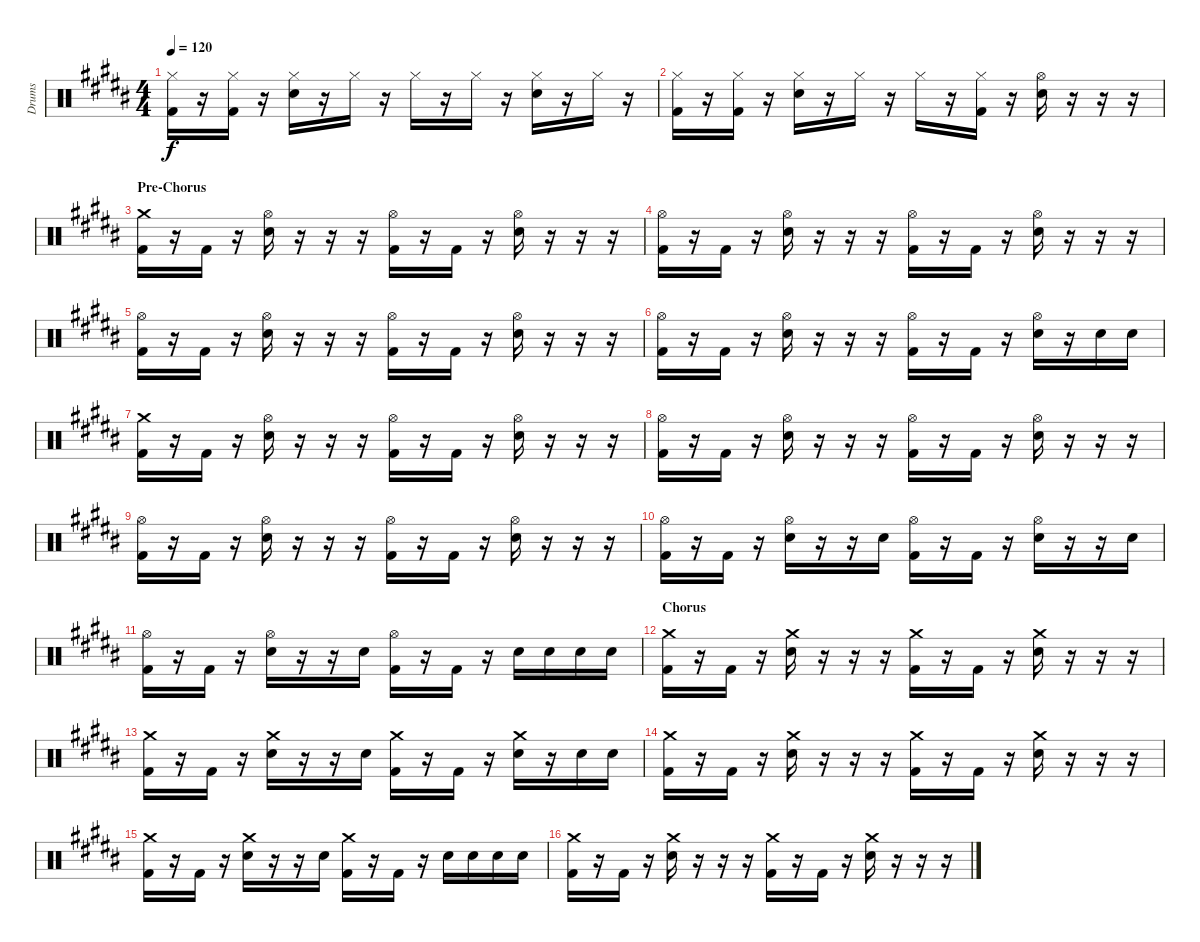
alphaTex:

\track ("Drums" "Drums") {instrument percussion}
\staff {score}
\articulation defaults
\ts (4 4)
\tempo 120
\clef neutral
\ks b
("Hi-Hat (closed)" "Kick (hit) 2").16{dy f} r.16 ("Hi-Hat (closed)" "Kick (hit) 2").16 r.16 ("Hi-Hat (closed)" "Snare (hit) 2").16 r.16 "Hi-Hat (closed)".16 r.16 "Hi-Hat (closed)".16 r.16 "Hi-Hat (closed)".16 r.16 ("Hi-Hat (closed)" "Snare (hit) 2").16 r.16 "Hi-Hat (closed)".16 r.16 |
("Hi-Hat (closed)" "Kick (hit) 2").16 r.16 ("Hi-Hat (closed)" "Kick (hit) 2").16 r.16 ("Hi-Hat (closed)" "Snare (hit) 2").16 r.16 "Hi-Hat (closed)".16 r.16 "Hi-Hat (closed)".16 r.16 ("Hi-Hat (closed)" "Kick (hit) 2").16 r.16 ("Hi-Hat (open)" "Snare (hit) 2").16 r.16 r.16 r.16 |
\section ("" "Pre-Chorus")
("Crash medium (hit)" "Kick (hit) 2").16 r.16 "Kick (hit) 2".16 r.16 ("Hi-Hat (open)" "Snare (hit) 2").16 r.16 r.16 r.16 ("Hi-Hat (open)" "Kick (hit) 2").16 r.16 "Kick (hit) 2".16 r.16 ("Hi-Hat (open)" "Snare (hit) 2").16 r.16 r.16 r.16 |
("Hi-Hat (open)" "Kick (hit) 2").16 r.16 "Kick (hit) 2".16 r.16 ("Hi-Hat (open)" "Snare (hit) 2").16 r.16 r.16 r.16 ("Hi-Hat (open)" "Kick (hit) 2").16 r.16 "Kick (hit) 2".16 r.16 ("Hi-Hat (open)" "Snare (hit) 2").16 r.16 r.16 r.16 |
("Hi-Hat (open)" "Kick (hit) 2").16 r.16 "Kick (hit) 2".16 r.16 ("Hi-Hat (open)" "Snare (hit) 2").16 r.16 r.16 r.16 ("Hi-Hat (open)" "Kick (hit) 2").16 r.16 "Kick (hit) 2".16 r.16 ("Hi-Hat (open)" "Snare (hit) 2").16 r.16 r.16 r.16 |
("Hi-Hat (open)" "Kick (hit) 2").16 r.16 "Kick (hit) 2".16 r.16 ("Hi-Hat (open)" "Snare (hit) 2").16 r.16 r.16 r.16 ("Hi-Hat (open)" "Kick (hit) 2").16 r.16 "Kick (hit) 2".16 r.16 ("Hi-Hat (open)" "Snare (hit) 2").16 r.16 "Snare (hit) 2".16 "Snare (hit) 2".16 |
("Crash medium (hit)" "Kick (hit) 2").16 r.16 "Kick (hit) 2".16 r.16 ("Hi-Hat (open)" "Snare (hit) 2").16 r.16 r.16 r.16 ("Hi-Hat (open)" "Kick (hit) 2").16 r.16 "Kick (hit) 2".16 r.16 ("Hi-Hat (open)" "Snare (hit) 2").16 r.16 r.16 r.16 |
("Hi-Hat (open)" "Kick (hit) 2").16 r.16 "Kick (hit) 2".16 r.16 ("Hi-Hat (open)" "Snare (hit) 2").16 r.16 r.16 r.16 ("Hi-Hat (open)" "Kick (hit) 2").16 r.16 "Kick (hit) 2".16 r.16 ("Hi-Hat (open)" "Snare (hit) 2").16 r.16 r.16 r.16 |
("Hi-Hat (open)" "Kick (hit) 2").16 r.16 "Kick (hit) 2".16 r.16 ("Hi-Hat (open)" "Snare (hit) 2").16 r.16 r.16 r.16 ("Hi-Hat (open)" "Kick (hit) 2").16 r.16 "Kick (hit) 2".16 r.16 ("Hi-Hat (open)" "Snare (hit) 2").16 r.16 r.16 r.16 |
("Hi-Hat (open)" "Kick (hit) 2").16 r.16 "Kick (hit) 2".16 r.16 ("Hi-Hat (open)" "Snare (hit) 2").16 r.16 r.16 "Snare (hit) 2".16 ("Hi-Hat (open)" "Kick (hit) 2").16 r.16 "Kick (hit) 2".16 r.16 ("Hi-Hat (open)" "Snare (hit) 2").16 r.16 r.16 "Snare (hit) 2".16 |
("Hi-Hat (open)" "Kick (hit) 2").16 r.16 "Kick (hit) 2".16 r.16 ("Hi-Hat (open)" "Snare (hit) 2").16 r.16 r.16 "Snare (hit) 2".16 ("Hi-Hat (open)" "Kick (hit) 2").16 r.16 "Kick (hit) 2".16 r.16 "Snare (hit) 2".16 "Snare (hit) 2".16 "Snare (hit) 2".16 "Snare (hit) 2".16 |
\section ("" "Chorus")
("Crash medium (hit)" "Kick (hit) 2").16 r.16 "Kick (hit) 2".16 r.16 ("Crash medium (hit)" "Snare (hit) 2").16 r.16 r.16 r.16 ("Crash medium (hit)" "Kick (hit) 2").16 r.16 "Kick (hit) 2".16 r.16 ("Crash medium (hit)" "Snare (hit) 2").16 r.16 r.16 r.16 |
("Crash medium (hit)" "Kick (hit) 2").16 r.16 "Kick (hit) 2".16 r.16 ("Crash medium (hit)" "Snare (hit) 2").16 r.16 r.16 "Snare (hit) 2".16 ("Crash medium (hit)" "Kick (hit) 2").16 r.16 "Kick (hit) 2".16 r.16 ("Crash medium (hit)" "Snare (hit) 2").16 r.16 "Snare (hit) 2".16 "Snare (hit) 2".16 |
("Crash medium (hit)" "Kick (hit) 2").16 r.16 "Kick (hit) 2".16 r.16 ("Crash medium (hit)" "Snare (hit) 2").16 r.16 r.16 r.16 ("Crash medium (hit)" "Kick (hit) 2").16 r.16 "Kick (hit) 2".16 r.16 ("Crash medium (hit)" "Snare (hit) 2").16 r.16 r.16 r.16 |
("Crash medium (hit)" "Kick (hit) 2").16 r.16 "Kick (hit) 2".16 r.16 ("Crash medium (hit)" "Snare (hit) 2").16 r.16 r.16 "Snare (hit) 2".16 ("Crash medium (hit)" "Kick (hit) 2").16 r.16 "Kick (hit) 2".16 r.16 "Snare (hit) 2".16 "Snare (hit) 2".16 "Snare (hit) 2".16 "Snare (hit) 2".16 |
("Crash medium (hit)" "Kick (hit) 2").16 r.16 "Kick (hit) 2".16 r.16 ("Crash medium (hit)" "Snare (hit) 2").16 r.16 r.16 r.16 ("Crash medium (hit)" "Kick (hit) 2").16 r.16 "Kick (hit) 2".16 r.16 ("Crash medium (hit)" "Snare (hit) 2").16 r.16 r.16 r.16
